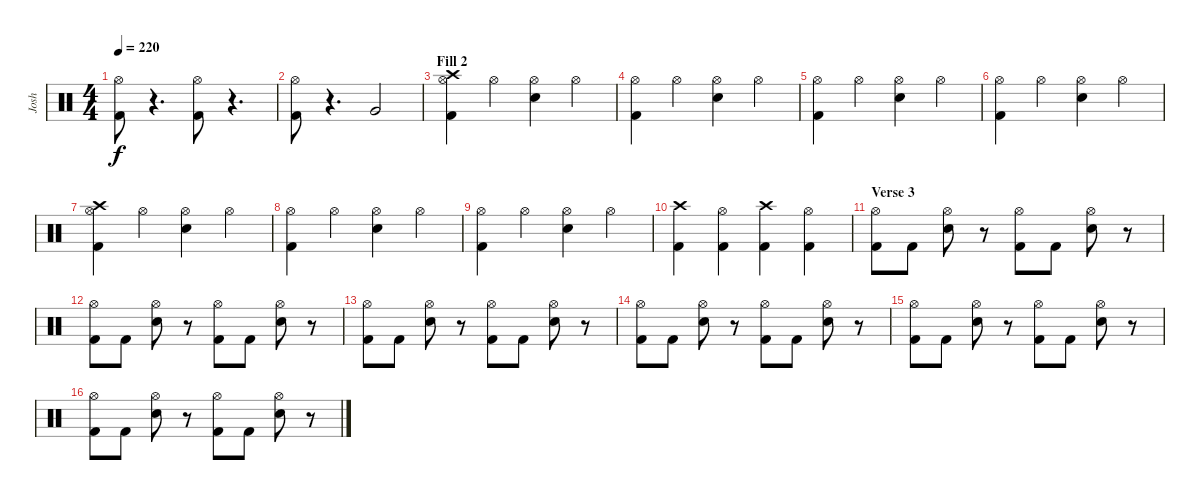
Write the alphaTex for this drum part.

\track ("Josh" "Josh") {instrument percussion}
\staff {score}
\articulation defaults
\ts (4 4)
\tempo 220
\clef neutral
\ks c
("Hi-Hat (open)" "Kick (hit) 2").8{dy f} r.4{d} ("Hi-Hat (open)" "Kick (hit) 2").8 r.4{d} |
("Hi-Hat (open)" "Kick (hit) 2").8 r.4{d} "Very Low Tom (hit)".2 |
\section ("" "Fill 2")
("Hi-Hat (open)" "Crash high (hit)" "Kick (hit) 2").4 "Hi-Hat (open)".4 ("Hi-Hat (open)" "Snare (hit) 2").4 "Hi-Hat (open)".4 |
("Hi-Hat (open)" "Kick (hit) 2").4 "Hi-Hat (open)".4 ("Hi-Hat (open)" "Snare (hit) 2").4 "Hi-Hat (open)".4 |
("Hi-Hat (open)" "Kick (hit) 2").4 "Hi-Hat (open)".4 ("Hi-Hat (open)" "Snare (hit) 2").4 "Hi-Hat (open)".4 |
("Hi-Hat (open)" "Kick (hit) 2").4 "Hi-Hat (open)".4 ("Hi-Hat (open)" "Snare (hit) 2").4 "Hi-Hat (open)".4 |
("Hi-Hat (open)" "Crash high (hit)" "Kick (hit) 2").4 "Hi-Hat (open)".4 ("Hi-Hat (open)" "Snare (hit) 2").4 "Hi-Hat (open)".4 |
("Hi-Hat (open)" "Kick (hit) 2").4 "Hi-Hat (open)".4 ("Hi-Hat (open)" "Snare (hit) 2").4 "Hi-Hat (open)".4 |
("Hi-Hat (open)" "Kick (hit) 2").4 "Hi-Hat (open)".4 ("Hi-Hat (open)" "Snare (hit) 2").4 "Hi-Hat (open)".4 |
("Crash high (hit)" "Kick (hit) 2").4 ("Hi-Hat (open)" "Kick (hit) 2").4 ("Crash high (hit)" "Kick (hit) 2").4 ("Hi-Hat (open)" "Kick (hit) 2").4 |
\section ("" "Verse 3")
("Hi-Hat (open)" "Kick (hit) 2").8 "Kick (hit) 2".8 ("Hi-Hat (open)" "Snare (hit) 2").8 r.8 ("Hi-Hat (open)" "Kick (hit) 2").8 "Kick (hit) 2".8 ("Hi-Hat (open)" "Snare (hit) 2").8 r.8 |
("Hi-Hat (open)" "Kick (hit) 2").8 "Kick (hit) 2".8 ("Hi-Hat (open)" "Snare (hit) 2").8 r.8 ("Hi-Hat (open)" "Kick (hit) 2").8 "Kick (hit) 2".8 ("Hi-Hat (open)" "Snare (hit) 2").8 r.8 |
("Hi-Hat (open)" "Kick (hit) 2").8 "Kick (hit) 2".8 ("Hi-Hat (open)" "Snare (hit) 2").8 r.8 ("Hi-Hat (open)" "Kick (hit) 2").8 "Kick (hit) 2".8 ("Hi-Hat (open)" "Snare (hit) 2").8 r.8 |
("Hi-Hat (open)" "Kick (hit) 2").8 "Kick (hit) 2".8 ("Hi-Hat (open)" "Snare (hit) 2").8 r.8 ("Hi-Hat (open)" "Kick (hit) 2").8 "Kick (hit) 2".8 ("Hi-Hat (open)" "Snare (hit) 2").8 r.8 |
("Hi-Hat (open)" "Kick (hit) 2").8 "Kick (hit) 2".8 ("Hi-Hat (open)" "Snare (hit) 2").8 r.8 ("Hi-Hat (open)" "Kick (hit) 2").8 "Kick (hit) 2".8 ("Hi-Hat (open)" "Snare (hit) 2").8 r.8 |
("Hi-Hat (open)" "Kick (hit) 2").8 "Kick (hit) 2".8 ("Hi-Hat (open)" "Snare (hit) 2").8 r.8 ("Hi-Hat (open)" "Kick (hit) 2").8 "Kick (hit) 2".8 ("Hi-Hat (open)" "Snare (hit) 2").8 r.8
